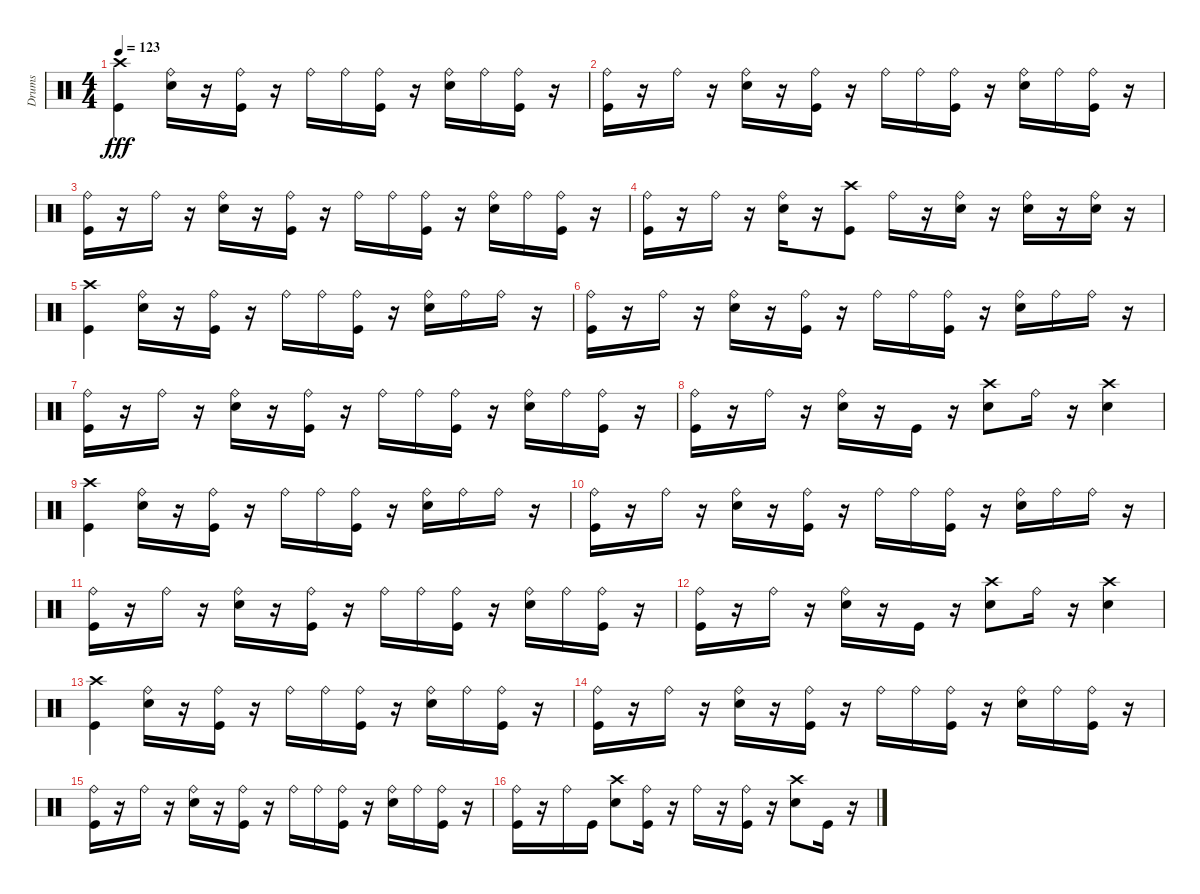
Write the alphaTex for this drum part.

\track ("Drums" "Drums") {instrument percussion}
\staff {score}
\articulation defaults
\ts (4 4)
\tempo 123
\clef neutral
\ks c
("Crash high (hit)" "Kick (hit)").4{dy fff} ("Snare (hit) 2" "Ride (bell)").16 r.16 ("Kick (hit)" "Ride (bell)").16 r.16 "Ride (bell)".16 "Ride (bell)".16 ("Kick (hit)" "Ride (bell)").16 r.16 ("Snare (hit) 2" "Ride (bell)").16 "Ride (bell)".16 ("Kick (hit)" "Ride (bell)").16 r.16 |
("Ride (bell)" "Kick (hit)").16 r.16 "Ride (bell)".16 r.16 ("Ride (bell)" "Snare (hit) 2").16 r.16 ("Ride (bell)" "Kick (hit)").16 r.16 "Ride (bell)".16 "Ride (bell)".16 ("Ride (bell)" "Kick (hit)").16 r.16 ("Ride (bell)" "Snare (hit) 2").16 "Ride (bell)".16 ("Ride (bell)" "Kick (hit)").16 r.16 |
("Kick (hit)" "Ride (bell)").16 r.16 "Ride (bell)".16 r.16 ("Snare (hit) 2" "Ride (bell)").16 r.16 ("Kick (hit)" "Ride (bell)").16 r.16 "Ride (bell)".16 "Ride (bell)".16 ("Kick (hit)" "Ride (bell)").16 r.16 ("Snare (hit) 2" "Ride (bell)").16 "Ride (bell)".16 ("Kick (hit)" "Ride (bell)").16 r.16 |
("Ride (bell)" "Kick (hit)").16 r.16 "Ride (bell)".16 r.16 ("Ride (bell)" "Snare (hit) 2").16 r.16 ("Crash high (hit)" "Kick (hit)").8 "Ride (bell)".16 r.16 ("Ride (bell)" "Snare (hit) 2").16 r.16 ("Ride (bell)" "Snare (hit) 2").16 r.16 ("Ride (bell)" "Snare (hit) 2").16 r.16 |
("Crash high (hit)" "Kick (hit)").4 ("Snare (hit) 2" "Ride (bell)").16 r.16 ("Kick (hit)" "Ride (bell)").16 r.16 "Ride (bell)".16 "Ride (bell)".16 ("Kick (hit)" "Ride (bell)").16 r.16 ("Snare (hit) 2" "Ride (bell)").16 "Ride (bell)".16 "Ride (bell)".16 r.16 |
("Ride (bell)" "Kick (hit)").16 r.16 "Ride (bell)".16 r.16 ("Ride (bell)" "Snare (hit) 2").16 r.16 ("Ride (bell)" "Kick (hit)").16 r.16 "Ride (bell)".16 "Ride (bell)".16 ("Ride (bell)" "Kick (hit)").16 r.16 ("Ride (bell)" "Snare (hit) 2").16 "Ride (bell)".16 "Ride (bell)".16 r.16 |
("Kick (hit)" "Ride (bell)").16 r.16 "Ride (bell)".16 r.16 ("Snare (hit) 2" "Ride (bell)").16 r.16 ("Kick (hit)" "Ride (bell)").16 r.16 "Ride (bell)".16 "Ride (bell)".16 ("Kick (hit)" "Ride (bell)").16 r.16 ("Snare (hit) 2" "Ride (bell)").16 "Ride (bell)".16 ("Kick (hit)" "Ride (bell)").16 r.16 |
("Ride (bell)" "Kick (hit)").16 r.16 "Ride (bell)".16 r.16 ("Ride (bell)" "Snare (hit) 2").16 r.16 "Kick (hit)".16 r.16 ("Crash high (hit)" "Snare (hit) 2").8 "Ride (bell)".16 r.16 ("Crash high (hit)" "Snare (hit) 2").4 |
("Crash high (hit)" "Kick (hit)").4 ("Snare (hit) 2" "Ride (bell)").16 r.16 ("Kick (hit)" "Ride (bell)").16 r.16 "Ride (bell)".16 "Ride (bell)".16 ("Kick (hit)" "Ride (bell)").16 r.16 ("Snare (hit) 2" "Ride (bell)").16 "Ride (bell)".16 "Ride (bell)".16 r.16 |
("Ride (bell)" "Kick (hit)").16 r.16 "Ride (bell)".16 r.16 ("Ride (bell)" "Snare (hit) 2").16 r.16 ("Ride (bell)" "Kick (hit)").16 r.16 "Ride (bell)".16 "Ride (bell)".16 ("Ride (bell)" "Kick (hit)").16 r.16 ("Ride (bell)" "Snare (hit) 2").16 "Ride (bell)".16 "Ride (bell)".16 r.16 |
("Kick (hit)" "Ride (bell)").16 r.16 "Ride (bell)".16 r.16 ("Snare (hit) 2" "Ride (bell)").16 r.16 ("Kick (hit)" "Ride (bell)").16 r.16 "Ride (bell)".16{volume 14} "Ride (bell)".16 ("Kick (hit)" "Ride (bell)").16 r.16 ("Snare (hit) 2" "Ride (bell)").16{volume 14} "Ride (bell)".16{volume 14} ("Kick (hit)" "Ride (bell)").16 r.16 |
("Ride (bell)" "Kick (hit)").16{volume 13} r.16 "Ride (bell)".16 r.16 ("Ride (bell)" "Snare (hit) 2").16{volume 13} r.16 "Kick (hit)".16{volume 13} r.16 ("Crash high (hit)" "Snare (hit) 2").8{volume 13} "Ride (bell)".16 r.16 ("Crash high (hit)" "Snare (hit) 2").4{volume 13} |
("Crash high (hit)" "Kick (hit)").4{volume 13} ("Snare (hit) 2" "Ride (bell)").16{volume 12} r.16 ("Kick (hit)" "Ride (bell)").16{volume 12} r.16 "Ride (bell)".16 "Ride (bell)".16{volume 12} ("Kick (hit)" "Ride (bell)").16 r.16 ("Snare (hit) 2" "Ride (bell)").16{volume 12} "Ride (bell)".16 ("Kick (hit)" "Ride (bell)").16{volume 12} r.16 |
("Ride (bell)" "Kick (hit)").16 r.16 "Ride (bell)".16{volume 12} r.16 ("Ride (bell)" "Snare (hit) 2").16{volume 12} r.16 ("Ride (bell)" "Kick (hit)").16{volume 12} r.16 "Ride (bell)".16 "Ride (bell)".16{volume 11} ("Ride (bell)" "Kick (hit)").16 r.16 ("Ride (bell)" "Snare (hit) 2").16{volume 11} "Ride (bell)".16 ("Ride (bell)" "Kick (hit)").16{volume 11} r.16 |
("Ride (bell)" "Kick (hit)").16 r.16 "Ride (bell)".16{volume 11} r.16 ("Ride (bell)" "Snare (hit) 2").16{volume 11} r.16 ("Ride (bell)" "Kick (hit)").16 r.16 "Ride (bell)".16{volume 11} "Ride (bell)".16{volume 11} ("Ride (bell)" "Kick (hit)").16 r.16 ("Ride (bell)" "Snare (hit) 2").16{volume 10} "Ride (bell)".16 ("Ride (bell)" "Kick (hit)").16 r.16 |
("Kick (hit)" "Ride (bell)").16{volume 10} r.16 "Ride (bell)".16{volume 10} "Kick (hit)".16 ("Crash high (hit)" "Snare (hit) 2").8{volume 10} ("Kick (hit)" "Ride (bell)").16 r.16 "Ride (bell)".16{volume 10} r.16 ("Kick (hit)" "Ride (bell)").16{volume 10} r.16 ("Snare (hit) 2" "Crash high (hit)").8{volume 10} "Kick (hit)".16 r.16
